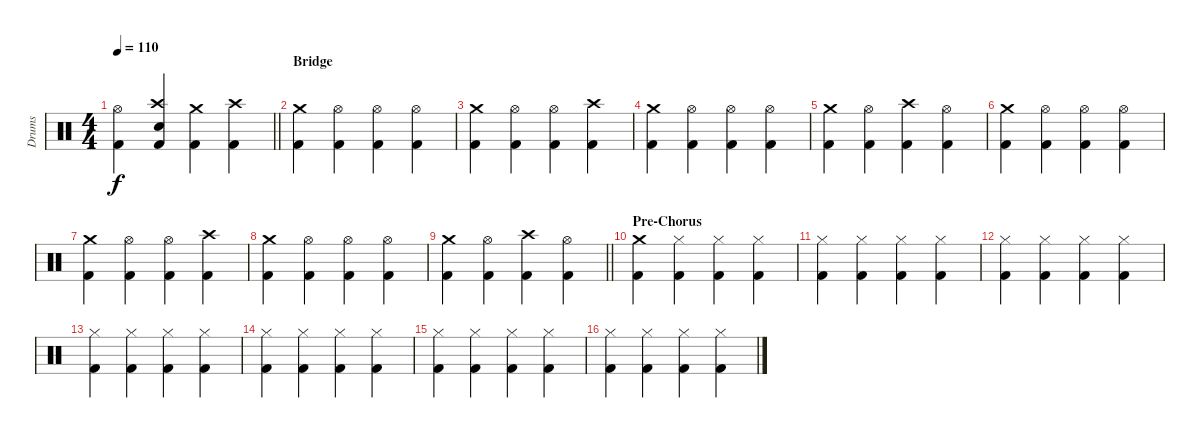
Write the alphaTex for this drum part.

\track ("Drums" "Drums") {instrument percussion}
\staff {score}
\articulation defaults
\ts (4 4)
\tempo 110
\clef neutral
\barLineRight lightlight
\ks c
("Hi-Hat (open)" "Kick (hit) 2").4{dy f} ("Crash high (hit)" "Electric Snare (hit)" "Kick (hit) 2").4 ("Crash medium (hit)" "Kick (hit) 2").4 ("Crash high (hit)" "Kick (hit) 2").4 |
\section ("" "Bridge")
("Crash medium (hit)" "Kick (hit) 2").4 ("Hi-Hat (open)" "Kick (hit) 2").4 ("Hi-Hat (open)" "Kick (hit) 2").4 ("Hi-Hat (open)" "Kick (hit) 2").4 |
("Crash medium (hit)" "Kick (hit) 2").4 ("Hi-Hat (open)" "Kick (hit) 2").4 ("Hi-Hat (open)" "Kick (hit) 2").4 ("Crash high (hit)" "Kick (hit) 2").4 |
("Crash medium (hit)" "Kick (hit) 2").4 ("Hi-Hat (open)" "Kick (hit) 2").4 ("Hi-Hat (open)" "Kick (hit) 2").4 ("Hi-Hat (open)" "Kick (hit) 2").4 |
("Crash medium (hit)" "Kick (hit) 2").4 ("Hi-Hat (open)" "Kick (hit) 2").4 ("Crash high (hit)" "Kick (hit) 2").4 ("Hi-Hat (open)" "Kick (hit) 2").4 |
("Crash medium (hit)" "Kick (hit) 2").4 ("Hi-Hat (open)" "Kick (hit) 2").4 ("Hi-Hat (open)" "Kick (hit) 2").4 ("Hi-Hat (open)" "Kick (hit) 2").4 |
("Crash medium (hit)" "Kick (hit) 2").4 ("Hi-Hat (open)" "Kick (hit) 2").4 ("Hi-Hat (open)" "Kick (hit) 2").4 ("Crash high (hit)" "Kick (hit) 2").4 |
("Crash medium (hit)" "Kick (hit) 2").4 ("Hi-Hat (open)" "Kick (hit) 2").4 ("Hi-Hat (open)" "Kick (hit) 2").4 ("Hi-Hat (open)" "Kick (hit) 2").4 |
\barLineRight lightlight
("Crash medium (hit)" "Kick (hit) 2").4 ("Hi-Hat (open)" "Kick (hit) 2").4 ("Crash high (hit)" "Kick (hit) 2").4 ("Hi-Hat (open)" "Kick (hit) 2").4 |
\section ("" "Pre-Chorus")
("Crash medium (hit)" "Kick (hit) 2").4 ("Hi-Hat (closed)" "Kick (hit) 2").4 ("Hi-Hat (closed)" "Kick (hit) 2").4 ("Hi-Hat (closed)" "Kick (hit) 2").4 |
("Hi-Hat (closed)" "Kick (hit) 2").4 ("Hi-Hat (closed)" "Kick (hit) 2").4 ("Hi-Hat (closed)" "Kick (hit) 2").4 ("Hi-Hat (closed)" "Kick (hit) 2").4 |
("Hi-Hat (closed)" "Kick (hit) 2").4 ("Hi-Hat (closed)" "Kick (hit) 2").4 ("Hi-Hat (closed)" "Kick (hit) 2").4 ("Hi-Hat (closed)" "Kick (hit) 2").4 |
("Hi-Hat (closed)" "Kick (hit) 2").4 ("Hi-Hat (closed)" "Kick (hit) 2").4 ("Hi-Hat (closed)" "Kick (hit) 2").4 ("Hi-Hat (closed)" "Kick (hit) 2").4 |
("Hi-Hat (closed)" "Kick (hit) 2").4 ("Hi-Hat (closed)" "Kick (hit) 2").4 ("Hi-Hat (closed)" "Kick (hit) 2").4 ("Hi-Hat (closed)" "Kick (hit) 2").4 |
("Hi-Hat (closed)" "Kick (hit) 2").4 ("Hi-Hat (closed)" "Kick (hit) 2").4 ("Hi-Hat (closed)" "Kick (hit) 2").4 ("Hi-Hat (closed)" "Kick (hit) 2").4 |
("Hi-Hat (closed)" "Kick (hit) 2").4 ("Hi-Hat (closed)" "Kick (hit) 2").4 ("Hi-Hat (closed)" "Kick (hit) 2").4 ("Hi-Hat (closed)" "Kick (hit) 2").4
